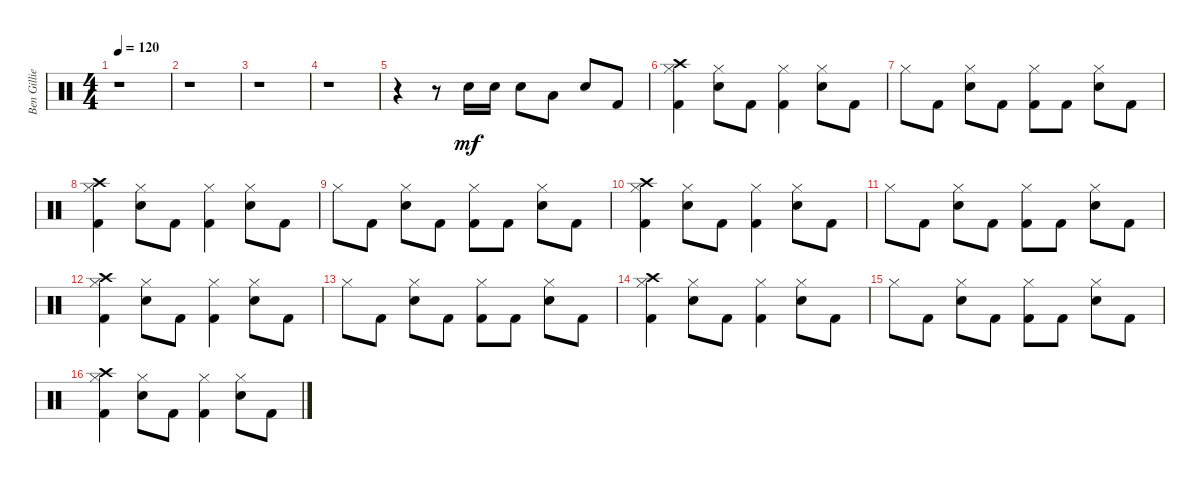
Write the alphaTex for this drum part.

\track ("Ben Gillies" "Ben Gillie") {instrument percussion}
\staff {score}
\articulation defaults
\ts (4 4)
\tempo 120
\clef neutral
\ks c
r.1{dy mf} |
r.1 |
r.1 |
r.1 |
r.4 r.8 "Electric Snare (hit)".16 "Electric Snare (hit)".16 "Electric Snare (hit)".8 "Low Floor Tom (hit)".8 "Electric Snare (hit)".8 "Kick (hit) 2".8 |
("Crash high (hit)" "Hi-Hat (closed)" "Kick (hit) 2").4 ("Hi-Hat (closed)" "Electric Snare (hit)").8 "Kick (hit) 2".8 ("Hi-Hat (closed)" "Kick (hit) 2").4 ("Hi-Hat (closed)" "Electric Snare (hit)").8 "Kick (hit) 2".8 |
"Hi-Hat (closed)".8 "Kick (hit) 2".8 ("Hi-Hat (closed)" "Electric Snare (hit)").8 "Kick (hit) 2".8 ("Hi-Hat (closed)" "Kick (hit) 2").8 "Kick (hit) 2".8 ("Hi-Hat (closed)" "Electric Snare (hit)").8 "Kick (hit) 2".8 |
("Crash high (hit)" "Hi-Hat (closed)" "Kick (hit) 2").4 ("Hi-Hat (closed)" "Electric Snare (hit)").8 "Kick (hit) 2".8 ("Hi-Hat (closed)" "Kick (hit) 2").4 ("Hi-Hat (closed)" "Electric Snare (hit)").8 "Kick (hit) 2".8 |
"Hi-Hat (closed)".8 "Kick (hit) 2".8 ("Hi-Hat (closed)" "Electric Snare (hit)").8 "Kick (hit) 2".8 ("Hi-Hat (closed)" "Kick (hit) 2").8 "Kick (hit) 2".8 ("Hi-Hat (closed)" "Electric Snare (hit)").8 "Kick (hit) 2".8 |
("Crash high (hit)" "Hi-Hat (closed)" "Kick (hit) 2").4 ("Hi-Hat (closed)" "Electric Snare (hit)").8 "Kick (hit) 2".8 ("Hi-Hat (closed)" "Kick (hit) 2").4 ("Hi-Hat (closed)" "Electric Snare (hit)").8 "Kick (hit) 2".8 |
"Hi-Hat (closed)".8 "Kick (hit) 2".8 ("Hi-Hat (closed)" "Electric Snare (hit)").8 "Kick (hit) 2".8 ("Hi-Hat (closed)" "Kick (hit) 2").8 "Kick (hit) 2".8 ("Hi-Hat (closed)" "Electric Snare (hit)").8 "Kick (hit) 2".8 |
("Crash high (hit)" "Hi-Hat (closed)" "Kick (hit) 2").4 ("Hi-Hat (closed)" "Electric Snare (hit)").8 "Kick (hit) 2".8 ("Hi-Hat (closed)" "Kick (hit) 2").4 ("Hi-Hat (closed)" "Electric Snare (hit)").8 "Kick (hit) 2".8 |
"Hi-Hat (closed)".8 "Kick (hit) 2".8 ("Hi-Hat (closed)" "Electric Snare (hit)").8 "Kick (hit) 2".8 ("Hi-Hat (closed)" "Kick (hit) 2").8 "Kick (hit) 2".8 ("Hi-Hat (closed)" "Electric Snare (hit)").8 "Kick (hit) 2".8 |
("Crash high (hit)" "Hi-Hat (closed)" "Kick (hit) 2").4 ("Hi-Hat (closed)" "Electric Snare (hit)").8 "Kick (hit) 2".8 ("Hi-Hat (closed)" "Kick (hit) 2").4 ("Hi-Hat (closed)" "Electric Snare (hit)").8 "Kick (hit) 2".8 |
"Hi-Hat (closed)".8 "Kick (hit) 2".8 ("Hi-Hat (closed)" "Electric Snare (hit)").8 "Kick (hit) 2".8 ("Hi-Hat (closed)" "Kick (hit) 2").8 "Kick (hit) 2".8 ("Hi-Hat (closed)" "Electric Snare (hit)").8 "Kick (hit) 2".8 |
("Crash high (hit)" "Hi-Hat (closed)" "Kick (hit) 2").4 ("Hi-Hat (closed)" "Electric Snare (hit)").8 "Kick (hit) 2".8 ("Hi-Hat (closed)" "Kick (hit) 2").4 ("Hi-Hat (closed)" "Electric Snare (hit)").8 "Kick (hit) 2".8
